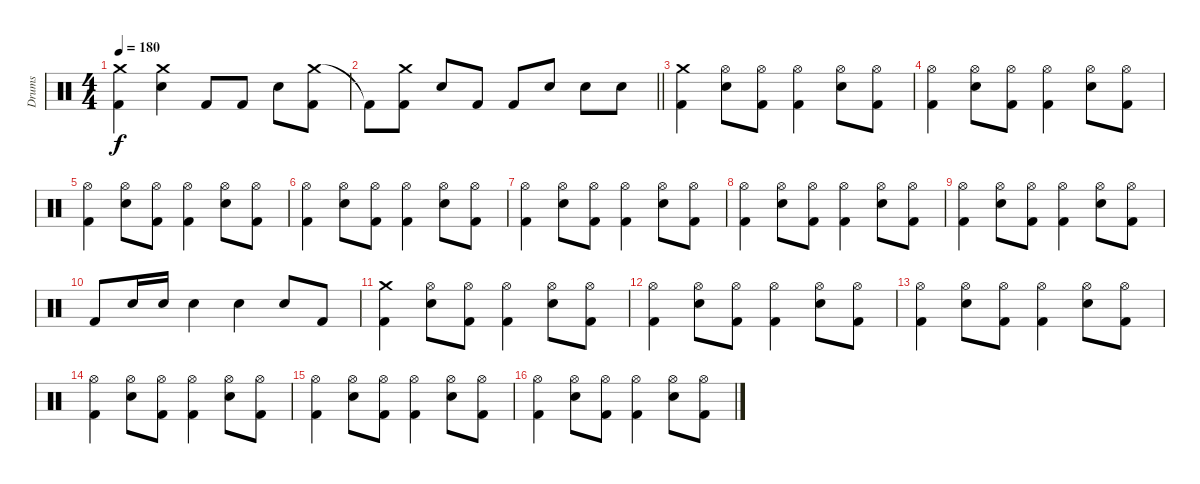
\track ("Drums" "Drums") {instrument percussion}
\staff {score}
\articulation defaults
\ts (4 4)
\tempo 180
\clef neutral
\ks c
("Crash medium (hit)" "Kick (hit) 2").4{dy f} ("Crash medium (hit)" "Electric Snare (hit)").4 "Kick (hit) 2".8 "Kick (hit) 2".8 "Electric Snare (hit)".8 ("Crash medium (hit)" "Kick (hit) 2").8 |
\barLineRight lightlight "Kick (hit) 2"{t}.8
("Crash medium (hit)" "Kick (hit) 2").8 "Electric Snare (hit)".8 "Kick (hit) 2".8 "Kick (hit) 2".8 "Electric Snare (hit)".8 "Electric Snare (hit)".8 "Electric Snare (hit)".8 |
("Crash medium (hit)" "Kick (hit) 2").4 ("Hi-Hat (open)" "Electric Snare (hit)").8 ("Hi-Hat (open)" "Kick (hit) 2").8 ("Hi-Hat (open)" "Kick (hit) 2").4 ("Hi-Hat (open)" "Electric Snare (hit)").8 ("Hi-Hat (open)" "Kick (hit) 2").8 |
("Hi-Hat (open)" "Kick (hit) 2").4 ("Hi-Hat (open)" "Electric Snare (hit)").8 ("Hi-Hat (open)" "Kick (hit) 2").8 ("Hi-Hat (open)" "Kick (hit) 2").4 ("Hi-Hat (open)" "Electric Snare (hit)").8 ("Hi-Hat (open)" "Kick (hit) 2").8 |
("Hi-Hat (open)" "Kick (hit) 2").4 ("Hi-Hat (open)" "Electric Snare (hit)").8 ("Hi-Hat (open)" "Kick (hit) 2").8 ("Hi-Hat (open)" "Kick (hit) 2").4 ("Hi-Hat (open)" "Electric Snare (hit)").8 ("Hi-Hat (open)" "Kick (hit) 2").8 |
("Hi-Hat (open)" "Kick (hit) 2").4 ("Hi-Hat (open)" "Electric Snare (hit)").8 ("Hi-Hat (open)" "Kick (hit) 2").8 ("Hi-Hat (open)" "Kick (hit) 2").4 ("Hi-Hat (open)" "Electric Snare (hit)").8 ("Hi-Hat (open)" "Kick (hit) 2").8 |
("Hi-Hat (open)" "Kick (hit) 2").4 ("Hi-Hat (open)" "Electric Snare (hit)").8 ("Hi-Hat (open)" "Kick (hit) 2").8 ("Hi-Hat (open)" "Kick (hit) 2").4 ("Hi-Hat (open)" "Electric Snare (hit)").8 ("Hi-Hat (open)" "Kick (hit) 2").8 |
("Hi-Hat (open)" "Kick (hit) 2").4 ("Hi-Hat (open)" "Electric Snare (hit)").8 ("Hi-Hat (open)" "Kick (hit) 2").8 ("Hi-Hat (open)" "Kick (hit) 2").4 ("Hi-Hat (open)" "Electric Snare (hit)").8 ("Hi-Hat (open)" "Kick (hit) 2").8 |
("Hi-Hat (open)" "Kick (hit) 2").4 ("Hi-Hat (open)" "Electric Snare (hit)").8 ("Hi-Hat (open)" "Kick (hit) 2").8 ("Hi-Hat (open)" "Kick (hit) 2").4 ("Hi-Hat (open)" "Electric Snare (hit)").8 ("Hi-Hat (open)" "Kick (hit) 2").8 |
"Kick (hit) 2".8 "Electric Snare (hit)".16 "Electric Snare (hit)".16 "Electric Snare (hit)".4 "Electric Snare (hit)".4 "Electric Snare (hit)".8 "Kick (hit) 2".8 |
("Crash medium (hit)" "Kick (hit) 2").4 ("Hi-Hat (open)" "Electric Snare (hit)").8 ("Hi-Hat (open)" "Kick (hit) 2").8 ("Hi-Hat (open)" "Kick (hit) 2").4 ("Hi-Hat (open)" "Electric Snare (hit)").8 ("Hi-Hat (open)" "Kick (hit) 2").8 |
("Hi-Hat (open)" "Kick (hit) 2").4 ("Hi-Hat (open)" "Electric Snare (hit)").8 ("Hi-Hat (open)" "Kick (hit) 2").8 ("Hi-Hat (open)" "Kick (hit) 2").4 ("Hi-Hat (open)" "Electric Snare (hit)").8 ("Hi-Hat (open)" "Kick (hit) 2").8 |
("Hi-Hat (open)" "Kick (hit) 2").4 ("Hi-Hat (open)" "Electric Snare (hit)").8 ("Hi-Hat (open)" "Kick (hit) 2").8 ("Hi-Hat (open)" "Kick (hit) 2").4 ("Hi-Hat (open)" "Electric Snare (hit)").8 ("Hi-Hat (open)" "Kick (hit) 2").8 |
("Hi-Hat (open)" "Kick (hit) 2").4 ("Hi-Hat (open)" "Electric Snare (hit)").8 ("Hi-Hat (open)" "Kick (hit) 2").8 ("Hi-Hat (open)" "Kick (hit) 2").4 ("Hi-Hat (open)" "Electric Snare (hit)").8 ("Hi-Hat (open)" "Kick (hit) 2").8 |
("Hi-Hat (open)" "Kick (hit) 2").4 ("Hi-Hat (open)" "Electric Snare (hit)").8 ("Hi-Hat (open)" "Kick (hit) 2").8 ("Hi-Hat (open)" "Kick (hit) 2").4 ("Hi-Hat (open)" "Electric Snare (hit)").8 ("Hi-Hat (open)" "Kick (hit) 2").8 |
("Hi-Hat (open)" "Kick (hit) 2").4 ("Hi-Hat (open)" "Electric Snare (hit)").8 ("Hi-Hat (open)" "Kick (hit) 2").8 ("Hi-Hat (open)" "Kick (hit) 2").4 ("Hi-Hat (open)" "Electric Snare (hit)").8 ("Hi-Hat (open)" "Kick (hit) 2").8
